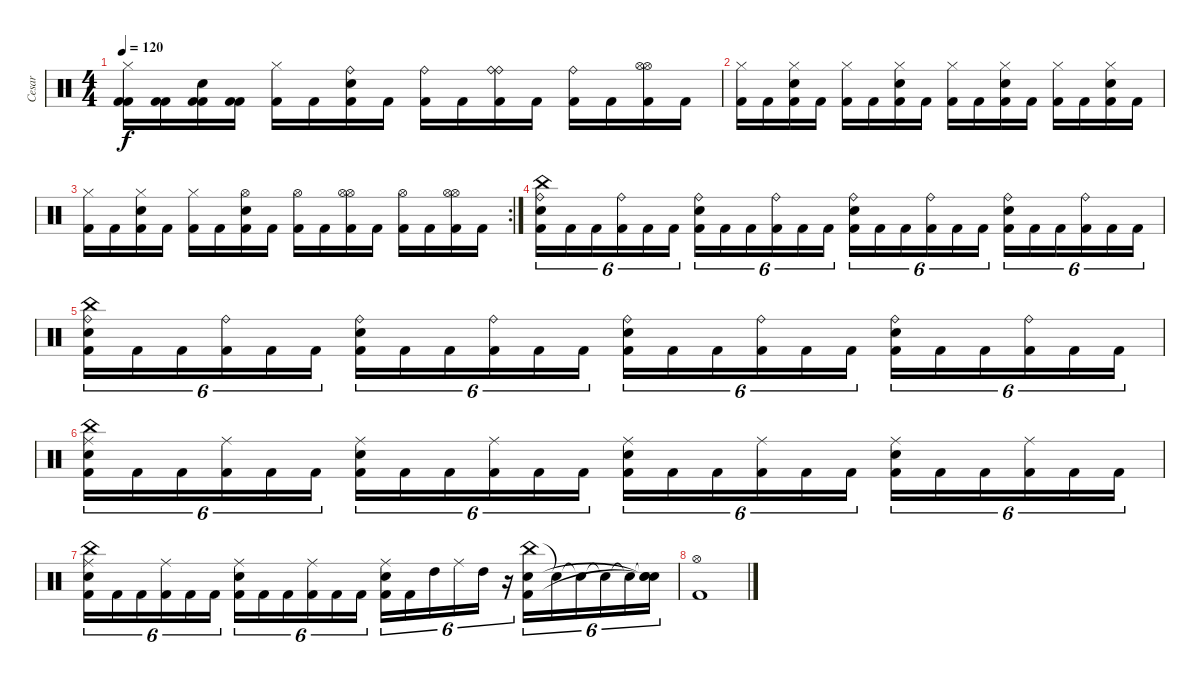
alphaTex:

\track ("Cesar" "Cesar") {instrument percussion}
\staff {score}
\articulation defaults
\ts (4 4)
\tempo 120
\clef neutral
\ks c
("Hi-Hat (closed)" "Kick (hit) 2" "Kick (hit) 2").16{dy f} ("Kick (hit) 2" "Kick (hit) 2").16 ("Electric Snare (hit)" "Kick (hit) 2" "Kick (hit) 2").16 ("Kick (hit) 2" "Kick (hit) 2").16 ("Hi-Hat (closed)" "Kick (hit) 2").16 "Kick (hit) 2".16 ("Electric Snare (hit)" "Kick (hit) 2" "Ride (bell)").16 "Kick (hit) 2".16 ("Ride (bell)" "Kick (hit) 2").16 "Kick (hit) 2".16 ("Ride (bell)" "Kick (hit) 2" "Ride (bell)").16 "Kick (hit) 2".16 ("Ride (bell)" "Kick (hit) 2").16 "Kick (hit) 2".16 ("Hi-Hat (open)" "Hi-Hat (open)" "Kick (hit) 2").16 "Kick (hit) 2".16 |
("Hi-Hat (closed)" "Kick (hit) 2").16 "Kick (hit) 2".16 ("Electric Snare (hit)" "Kick (hit) 2" "Hi-Hat (closed)").16 "Kick (hit) 2".16 ("Hi-Hat (closed)" "Kick (hit) 2").16 "Kick (hit) 2".16 ("Electric Snare (hit)" "Kick (hit) 2" "Hi-Hat (closed)").16 "Kick (hit) 2".16 ("Hi-Hat (closed)" "Kick (hit) 2").16 "Kick (hit) 2".16 ("Electric Snare (hit)" "Kick (hit) 2" "Hi-Hat (closed)").16 "Kick (hit) 2".16 ("Hi-Hat (closed)" "Kick (hit) 2").16 "Kick (hit) 2".16 ("Electric Snare (hit)" "Hi-Hat (closed)" "Kick (hit) 2").16 "Kick (hit) 2".16 |
\rc 2
("Hi-Hat (closed)" "Kick (hit) 2").16 "Kick (hit) 2".16 ("Electric Snare (hit)" "Kick (hit) 2" "Hi-Hat (closed)").16 "Kick (hit) 2".16 ("Hi-Hat (closed)" "Kick (hit) 2").16 "Kick (hit) 2".16 ("Electric Snare (hit)" "Kick (hit) 2" "Hi-Hat (open)").16 "Kick (hit) 2".16 ("Hi-Hat (open)" "Kick (hit) 2").16 "Kick (hit) 2".16 ("Hi-Hat (open)" "Kick (hit) 2" "Hi-Hat (open)").16 "Kick (hit) 2".16 ("Hi-Hat (open)" "Kick (hit) 2").16 "Kick (hit) 2".16 ("Hi-Hat (open)" "Hi-Hat (open)" "Kick (hit) 2").16 "Kick (hit) 2".16 |
("Ride (bell)" "China (hit)" "Electric Snare (hit)" "Kick (hit) 2").16{tu (6 4)} "Kick (hit) 2".16{tu (6 4)} "Kick (hit) 2".16{tu (6 4)} ("Ride (bell)" "Kick (hit) 2").16{tu (6 4)} "Kick (hit) 2".16{tu (6 4)} "Kick (hit) 2".16{tu (6 4)} ("Ride (bell)" "Electric Snare (hit)" "Kick (hit) 2").16{tu (6 4)} "Kick (hit) 2".16{tu (6 4)} "Kick (hit) 2".16{tu (6 4)} ("Ride (bell)" "Kick (hit) 2").16{tu (6 4)} "Kick (hit) 2".16{tu (6 4)} "Kick (hit) 2".16{tu (6 4)} ("Ride (bell)" "Electric Snare (hit)" "Kick (hit) 2").16{tu (6 4)} "Kick (hit) 2".16{tu (6 4)} "Kick (hit) 2".16{tu (6 4)} ("Ride (bell)" "Kick (hit) 2").16{tu (6 4)} "Kick (hit) 2".16{tu (6 4)} "Kick (hit) 2".16{tu (6 4)} ("Ride (bell)" "Electric Snare (hit)" "Kick (hit) 2").16{tu (6 4)} "Kick (hit) 2".16{tu (6 4)} "Kick (hit) 2".16{tu (6 4)} ("Ride (bell)" "Kick (hit) 2").16{tu (6 4)} "Kick (hit) 2".16{tu (6 4)} "Kick (hit) 2".16{tu (6 4)} |
("Ride (bell)" "China (hit)" "Electric Snare (hit)" "Kick (hit) 2").16{tu (6 4)} "Kick (hit) 2".16{tu (6 4)} "Kick (hit) 2".16{tu (6 4)} ("Ride (bell)" "Kick (hit) 2").16{tu (6 4)} "Kick (hit) 2".16{tu (6 4)} "Kick (hit) 2".16{tu (6 4)} ("Ride (bell)" "Electric Snare (hit)" "Kick (hit) 2").16{tu (6 4)} "Kick (hit) 2".16{tu (6 4)} "Kick (hit) 2".16{tu (6 4)} ("Ride (bell)" "Kick (hit) 2").16{tu (6 4)} "Kick (hit) 2".16{tu (6 4)} "Kick (hit) 2".16{tu (6 4)} ("Ride (bell)" "Electric Snare (hit)" "Kick (hit) 2").16{tu (6 4)} "Kick (hit) 2".16{tu (6 4)} "Kick (hit) 2".16{tu (6 4)} ("Ride (bell)" "Kick (hit) 2").16{tu (6 4)} "Kick (hit) 2".16{tu (6 4)} "Kick (hit) 2".16{tu (6 4)} ("Ride (bell)" "Electric Snare (hit)" "Kick (hit) 2").16{tu (6 4)} "Kick (hit) 2".16{tu (6 4)} "Kick (hit) 2".16{tu (6 4)} ("Ride (bell)" "Kick (hit) 2").16{tu (6 4)} "Kick (hit) 2".16{tu (6 4)} "Kick (hit) 2".16{tu (6 4)} |
("Ride (middle)" "China (hit)" "Electric Snare (hit)" "Kick (hit) 2").16{tu (6 4)} "Kick (hit) 2".16{tu (6 4)} "Kick (hit) 2".16{tu (6 4)} ("Ride (middle)" "Kick (hit) 2").16{tu (6 4)} "Kick (hit) 2".16{tu (6 4)} "Kick (hit) 2".16{tu (6 4)} ("Ride (middle)" "Electric Snare (hit)" "Kick (hit) 2").16{tu (6 4)} "Kick (hit) 2".16{tu (6 4)} "Kick (hit) 2".16{tu (6 4)} ("Ride (middle)" "Kick (hit) 2").16{tu (6 4)} "Kick (hit) 2".16{tu (6 4)} "Kick (hit) 2".16{tu (6 4)} ("Ride (middle)" "Electric Snare (hit)" "Kick (hit) 2").16{tu (6 4)} "Kick (hit) 2".16{tu (6 4)} "Kick (hit) 2".16{tu (6 4)} ("Ride (middle)" "Kick (hit) 2").16{tu (6 4)} "Kick (hit) 2".16{tu (6 4)} "Kick (hit) 2".16{tu (6 4)} ("Ride (middle)" "Electric Snare (hit)" "Kick (hit) 2").16{tu (6 4)} "Kick (hit) 2".16{tu (6 4)} "Kick (hit) 2".16{tu (6 4)} ("Ride (middle)" "Kick (hit) 2").16{tu (6 4)} "Kick (hit) 2".16{tu (6 4)} "Kick (hit) 2".16{tu (6 4)} |
("Ride (middle)" "China (hit)" "Electric Snare (hit)" "Kick (hit) 2").16{tu (6 4)} "Kick (hit) 2".16{tu (6 4)} "Kick (hit) 2".16{tu (6 4)} ("Ride (middle)" "Kick (hit) 2").16{tu (6 4)} "Kick (hit) 2".16{tu (6 4)} "Kick (hit) 2".16{tu (6 4)} ("Ride (middle)" "Electric Snare (hit)" "Kick (hit) 2").16{tu (6 4)} "Kick (hit) 2".16{tu (6 4)} "Kick (hit) 2".16{tu (6 4)} ("Ride (middle)" "Kick (hit) 2").16{tu (6 4)} "Kick (hit) 2".16{tu (6 4)} "Kick (hit) 2".16{tu (6 4)} ("Ride (middle)" "Kick (hit) 2" "Electric Snare (hit)").16{tu (6 4)} "Kick (hit) 2".16{tu (6 4)} "High Tom (hit)".16{tu (6 4)} "Ride (middle)".16{tu (6 4)} "High Tom (hit)".16{tu (6 4)} r.16{tu (6 4)} ("China (hit)" "Kick (hit) 2" "Electric Snare (hit)").16{tu (6 4)} "Snare (hit)"{t}.16{tu (6 4)} "Snare (hit)"{t}.16{tu (6 4)} "Snare (hit)"{t}.16{tu (6 4)} "Snare (hit)"{t}.16{tu (6 4)} ("Snare (hit)"{t} "Snare (hit)"{t} "Snare (hit)"{t}).16{tu (6 4)} |
("Hi-Hat (open)" "Kick (hit) 2").1
